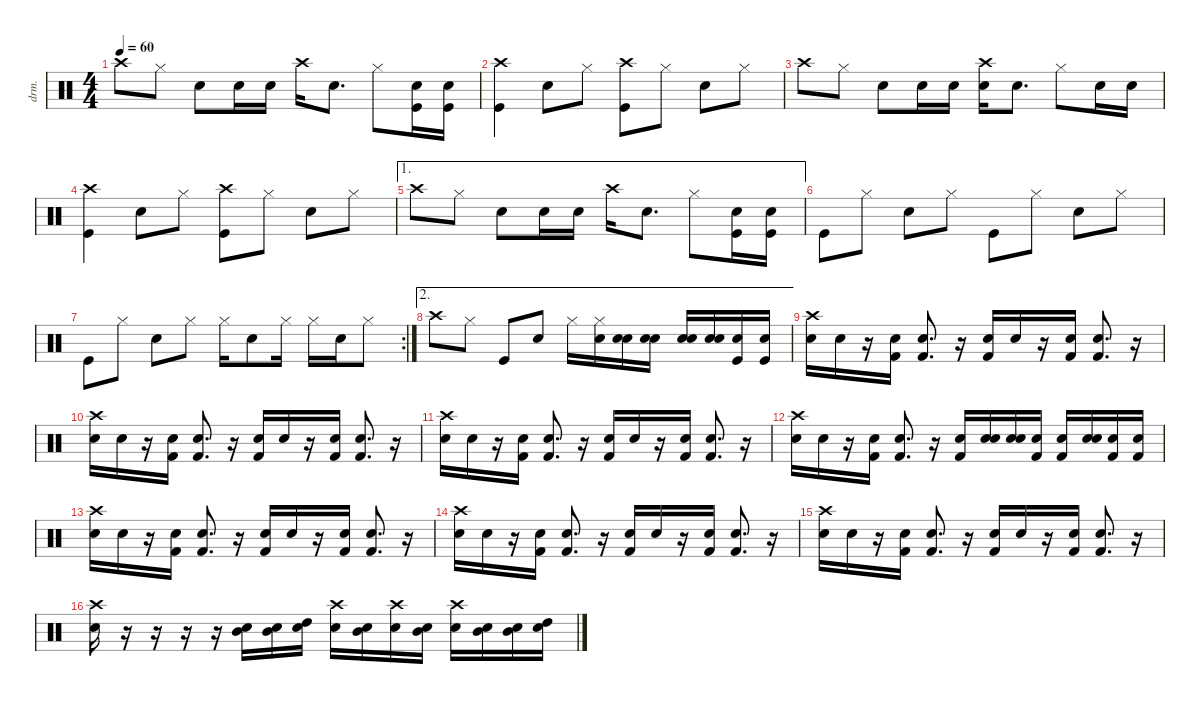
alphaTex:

\defaultSystemsLayout 4
\hideDynamics
\bracketExtendMode nobrackets
\otherSystemsTrackNameOrientation horizontal
\track ("Drums" "drm.") {instrument percussion}
\staff {score}
\articulation defaults
\ts (4 4)
\tempo 60
\clef neutral
\ks c "Crash high (hit)".8{dy f} "Hi-Hat (closed)".8 "Snare (hit) 2".8 "Snare (hit) 2".16 "Snare (hit) 2".16 "Crash high (hit)".16 "Snare (hit) 2".8{d} "Hi-Hat (closed)".8
("Kick (hit)" "Snare (hit) 2").16 ("Kick (hit)" "Snare (hit) 2").16 |
("Crash high (hit)" "Kick (hit)").4 "Snare (hit) 2".8{dy mf} "Hi-Hat (closed)".8{dy p} ("Crash high (hit)" "Kick (hit)").8{dy f} "Hi-Hat (closed)".8{dy p} "Snare (hit) 2".8{dy f} "Hi-Hat (closed)".8{dy p} |
"Crash high (hit)".8{dy f} "Hi-Hat (closed)".8 "Snare (hit) 2".8 "Snare (hit) 2".16 "Snare (hit) 2".16 ("Snare (hit) 2" "Crash high (hit)").16 "Snare (hit) 2".8{d} "Hi-Hat (closed)".8 "Snare (hit) 2".16 "Snare (hit) 2".16 |
("Crash high (hit)" "Kick (hit)").4 "Snare (hit) 2".8{dy mf} "Hi-Hat (closed)".8{dy p} ("Crash high (hit)" "Kick (hit)").8{dy f} "Hi-Hat (closed)".8{dy p} "Snare (hit) 2".8{dy f} "Hi-Hat (closed)".8{dy p} |
\ae 1 "Crash high (hit)".8{dy f} "Hi-Hat (closed)".8 "Snare (hit) 2".8 "Snare (hit) 2".16 "Snare (hit) 2".16 "Crash high (hit)".16 "Snare (hit) 2".8{d} "Hi-Hat (closed)".8
("Kick (hit)" "Snare (hit) 2").16 ("Kick (hit)" "Snare (hit) 2").16 |
"Kick (hit)".8 "Hi-Hat (closed)".8 "Snare (hit) 2".8 "Hi-Hat (closed)".8 "Kick (hit)".8 "Hi-Hat (closed)".8 "Snare (hit) 2".8 "Hi-Hat (closed)".8 |
\rc 2 "Kick (hit)".8 "Hi-Hat (closed)".8{dy mp} "Snare (hit) 2".8{dy f} "Hi-Hat (closed)".8{dy mp} "Hi-Hat (closed)".16{dy f} "Snare (hit) 2".8 "Hi-Hat (closed)".16 "Hi-Hat (closed)".16{dy mp} "Snare (hit) 2".16{dy f} "Hi-Hat (closed)".8
|
\ae 2 "Crash high (hit)".8 "Hi-Hat (closed)".8 "Kick (hit)".8 "Snare (hit) 2".8 "Hi-Hat (closed)".16
("Hi-Hat (closed)" "Snare (hit) 2").16 ("Snare (hit) 2" "Snare (hit) 2").16 ("Snare (hit) 2" "Snare (hit) 2").16 ("Snare (hit) 2" "Snare (hit) 2").16 ("Snare (hit) 2" "Snare (hit) 2").16 ("Kick (hit)" "Snare (hit) 2").16 ("Kick (hit)" "Snare (hit) 2").16 |
("Snare (hit) 2" "Crash high (hit)").16 "Snare (hit) 2".16 r.16 ("Snare (hit) 2" "Kick (hit) 2").16 ("Snare (hit) 2" "Kick (hit) 2").8{d} r.16 ("Snare (hit) 2" "Kick (hit) 2").16 "Snare (hit) 2".16 r.16 ("Snare (hit) 2" "Kick (hit) 2").16 ("Snare (hit) 2" "Kick (hit) 2").8{d} r.16 |
("Snare (hit) 2" "Crash high (hit)").16 "Snare (hit) 2".16 r.16 ("Snare (hit) 2" "Kick (hit) 2").16 ("Snare (hit) 2" "Kick (hit) 2").8{d} r.16 ("Snare (hit) 2" "Kick (hit) 2").16 "Snare (hit) 2".16 r.16 ("Snare (hit) 2" "Kick (hit) 2").16 ("Snare (hit) 2" "Kick (hit) 2").8{d} r.16 |
("Snare (hit) 2" "Crash high (hit)").16 "Snare (hit) 2".16 r.16 ("Snare (hit) 2" "Kick (hit) 2").16 ("Snare (hit) 2" "Kick (hit) 2").8{d} r.16 ("Snare (hit) 2" "Kick (hit) 2").16 "Snare (hit) 2".16 r.16 ("Snare (hit) 2" "Kick (hit) 2").16 ("Snare (hit) 2" "Kick (hit) 2").8{d} r.16 |
("Snare (hit) 2" "Crash high (hit)").16 "Snare (hit) 2".16 r.16 ("Snare (hit) 2" "Kick (hit) 2").16 ("Snare (hit) 2" "Kick (hit) 2").8{d} r.16 ("Snare (hit) 2" "Kick (hit) 2").16 ("Snare (hit) 2" "Snare (hit) 2").16 ("Snare (hit) 2" "Snare (hit) 2").16 ("Snare (hit) 2" "Kick (hit) 2").16 ("Snare (hit) 2" "Kick (hit) 2").16 ("Snare (hit) 2" "Snare (hit) 2").16 ("Snare (hit) 2" "Kick (hit) 2").16 ("Snare (hit) 2" "Kick (hit) 2").16 |
("Snare (hit) 2" "Crash high (hit)").16 "Snare (hit) 2".16 r.16 ("Snare (hit) 2" "Kick (hit) 2").16 ("Snare (hit) 2" "Kick (hit) 2").8{d} r.16 ("Snare (hit) 2" "Kick (hit) 2").16 "Snare (hit) 2".16 r.16 ("Snare (hit) 2" "Kick (hit) 2").16 ("Snare (hit) 2" "Kick (hit) 2").8{d} r.16 |
("Snare (hit) 2" "Crash high (hit)").16 "Snare (hit) 2".16 r.16 ("Snare (hit) 2" "Kick (hit) 2").16 ("Snare (hit) 2" "Kick (hit) 2").8{d} r.16 ("Snare (hit) 2" "Kick (hit) 2").16 "Snare (hit) 2".16 r.16 ("Snare (hit) 2" "Kick (hit) 2").16 ("Snare (hit) 2" "Kick (hit) 2").8{d} r.16 |
("Snare (hit) 2" "Crash high (hit)").16 "Snare (hit) 2".16 r.16 ("Snare (hit) 2" "Kick (hit) 2").16 ("Snare (hit) 2" "Kick (hit) 2").8{d} r.16 ("Snare (hit) 2" "Kick (hit) 2").16 "Snare (hit) 2".16 r.16 ("Snare (hit) 2" "Kick (hit) 2").16 ("Snare (hit) 2" "Kick (hit) 2").8{d} r.16 |
("Crash high (hit)" "Snare (hit) 2").16 r.16 r.16 r.16 r.16 ("Mid Tom (hit)" "Snare (hit) 2").16 ("Mid Tom (hit)" "Snare (hit) 2").16 ("High Tom (hit)" "Snare (hit) 2").16 ("Crash high (hit)" "Snare (hit) 2").16 ("Mid Tom (hit)" "Snare (hit) 2").16 ("Crash high (hit)" "Snare (hit) 2").16 ("Mid Tom (hit)" "Snare (hit) 2").16 ("Crash high (hit)" "Snare (hit) 2").16 ("Mid Tom (hit)" "Snare (hit) 2").16 ("Mid Tom (hit)" "Snare (hit) 2").16 ("High Tom (hit)" "Snare (hit) 2").16
